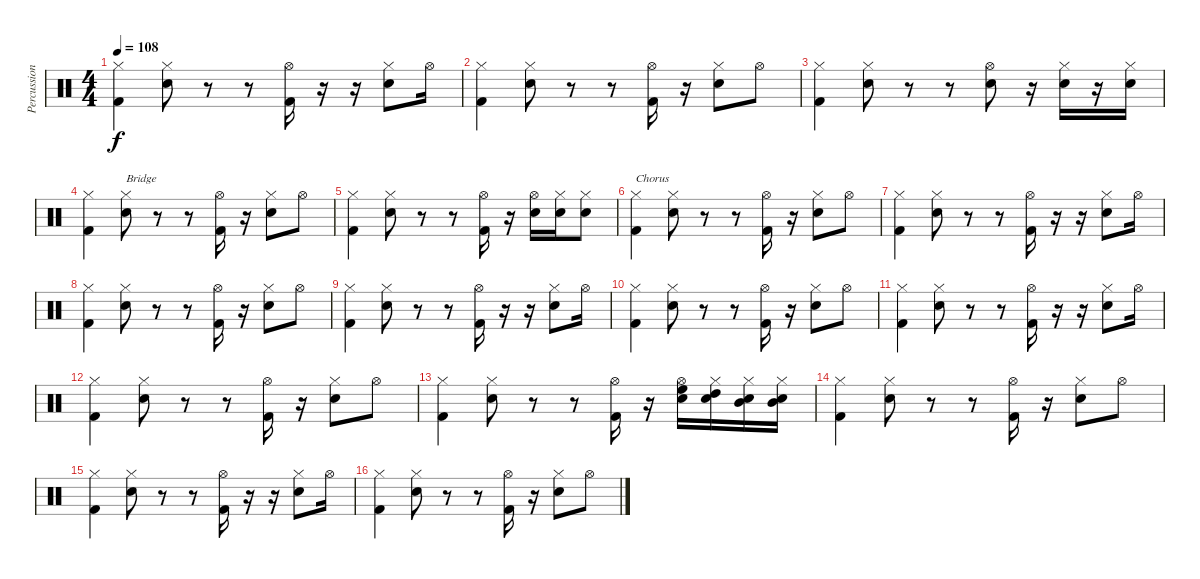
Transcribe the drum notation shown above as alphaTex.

\track ("Percussions" "Percussion") {instrument percussion}
\staff {score}
\articulation defaults
\ts (4 4)
\tempo 108
\clef neutral
\ks c
("Hi-Hat (closed)" "Kick (hit) 2").4{dy f} ("Hi-Hat (closed)" "Snare (hit) 2").8 r.8 r.8 ("Hi-Hat (open)" "Kick (hit) 2").16 r.16 r.16 ("Hi-Hat (closed)" "Snare (hit) 2").8 "Hi-Hat (open)".16 |
("Hi-Hat (closed)" "Kick (hit) 2").4 ("Hi-Hat (closed)" "Snare (hit) 2").8 r.8 r.8 ("Hi-Hat (open)" "Kick (hit) 2").16 r.16 ("Hi-Hat (closed)" "Snare (hit) 2").8 "Hi-Hat (open)".8 |
("Hi-Hat (closed)" "Kick (hit) 2").4 ("Hi-Hat (closed)" "Snare (hit) 2").8 r.8 r.8 ("Hi-Hat (open)" "Snare (hit) 2").8 r.16 ("Hi-Hat (closed)" "Snare (hit) 2").16 r.16 ("Hi-Hat (closed)" "Snare (hit) 2").16 |
("Hi-Hat (closed)" "Kick (hit) 2").4 ("Hi-Hat (closed)" "Snare (hit) 2").8{txt "Bridge"} r.8 r.8 ("Hi-Hat (open)" "Kick (hit) 2").16 r.16 ("Hi-Hat (closed)" "Snare (hit) 2").8 "Hi-Hat (open)".8 |
("Hi-Hat (closed)" "Kick (hit) 2").4 ("Hi-Hat (closed)" "Snare (hit) 2").8 r.8 r.8 ("Hi-Hat (open)" "Kick (hit) 2").16 r.16 ("Hi-Hat (open)" "Snare (hit) 2").16 ("Hi-Hat (closed)" "Snare (hit) 2").16 ("Hi-Hat (closed)" "Snare (hit) 2").8 |
("Hi-Hat (closed)" "Kick (hit) 2").4{txt "Chorus"} ("Hi-Hat (closed)" "Snare (hit) 2").8 r.8 r.8 ("Hi-Hat (open)" "Kick (hit) 2").16 r.16 ("Hi-Hat (closed)" "Snare (hit) 2").8 "Hi-Hat (open)".8 |
("Hi-Hat (closed)" "Kick (hit) 2").4 ("Hi-Hat (closed)" "Snare (hit) 2").8 r.8 r.8 ("Hi-Hat (open)" "Kick (hit) 2").16 r.16 r.16 ("Hi-Hat (closed)" "Snare (hit) 2").8 "Hi-Hat (open)".16 |
("Hi-Hat (closed)" "Kick (hit) 2").4 ("Hi-Hat (closed)" "Snare (hit) 2").8 r.8 r.8 ("Hi-Hat (open)" "Kick (hit) 2").16 r.16 ("Hi-Hat (closed)" "Snare (hit) 2").8 "Hi-Hat (open)".8 |
("Hi-Hat (closed)" "Kick (hit) 2").4 ("Hi-Hat (closed)" "Snare (hit) 2").8 r.8 r.8 ("Hi-Hat (open)" "Kick (hit) 2").16 r.16 r.16 ("Hi-Hat (closed)" "Snare (hit) 2").8 "Hi-Hat (open)".16 |
("Hi-Hat (closed)" "Kick (hit) 2").4 ("Hi-Hat (closed)" "Snare (hit) 2").8 r.8 r.8 ("Hi-Hat (open)" "Kick (hit) 2").16 r.16 ("Hi-Hat (closed)" "Snare (hit) 2").8 "Hi-Hat (open)".8 |
("Hi-Hat (closed)" "Kick (hit) 2").4 ("Hi-Hat (closed)" "Snare (hit) 2").8 r.8 r.8 ("Hi-Hat (open)" "Kick (hit) 2").16 r.16 r.16 ("Hi-Hat (closed)" "Snare (hit) 2").8 "Hi-Hat (open)".16 |
("Hi-Hat (closed)" "Kick (hit) 2").4 ("Hi-Hat (closed)" "Snare (hit) 2").8 r.8 r.8 ("Hi-Hat (open)" "Kick (hit) 2").16 r.16 ("Hi-Hat (closed)" "Snare (hit) 2").8 "Hi-Hat (open)".8 |
("Hi-Hat (closed)" "Kick (hit) 2").4 ("Hi-Hat (closed)" "Snare (hit) 2").8 r.8 r.8 ("Hi-Hat (open)" "Kick (hit) 2").16 r.16 ("Hi-Hat (open)" "High Floor Tom (hit)" "Snare (hit) 2").16 ("Hi-Hat (closed)" "High Tom (hit)" "Snare (hit) 2").16 ("Hi-Hat (closed)" "Mid Tom (hit)" "Snare (hit) 2").16 ("Hi-Hat (closed)" "Mid Tom (hit)" "Snare (hit) 2").16 |
("Hi-Hat (closed)" "Kick (hit) 2").4 ("Hi-Hat (closed)" "Snare (hit) 2").8 r.8 r.8 ("Hi-Hat (open)" "Kick (hit) 2").16 r.16 ("Hi-Hat (closed)" "Snare (hit) 2").8 "Hi-Hat (open)".8 |
("Hi-Hat (closed)" "Kick (hit) 2").4 ("Hi-Hat (closed)" "Snare (hit) 2").8 r.8 r.8 ("Hi-Hat (open)" "Kick (hit) 2").16 r.16 r.16 ("Hi-Hat (closed)" "Snare (hit) 2").8 "Hi-Hat (open)".16 |
("Hi-Hat (closed)" "Kick (hit) 2").4 ("Hi-Hat (closed)" "Snare (hit) 2").8 r.8 r.8 ("Hi-Hat (open)" "Kick (hit) 2").16 r.16 ("Hi-Hat (closed)" "Snare (hit) 2").8 "Hi-Hat (open)".8
